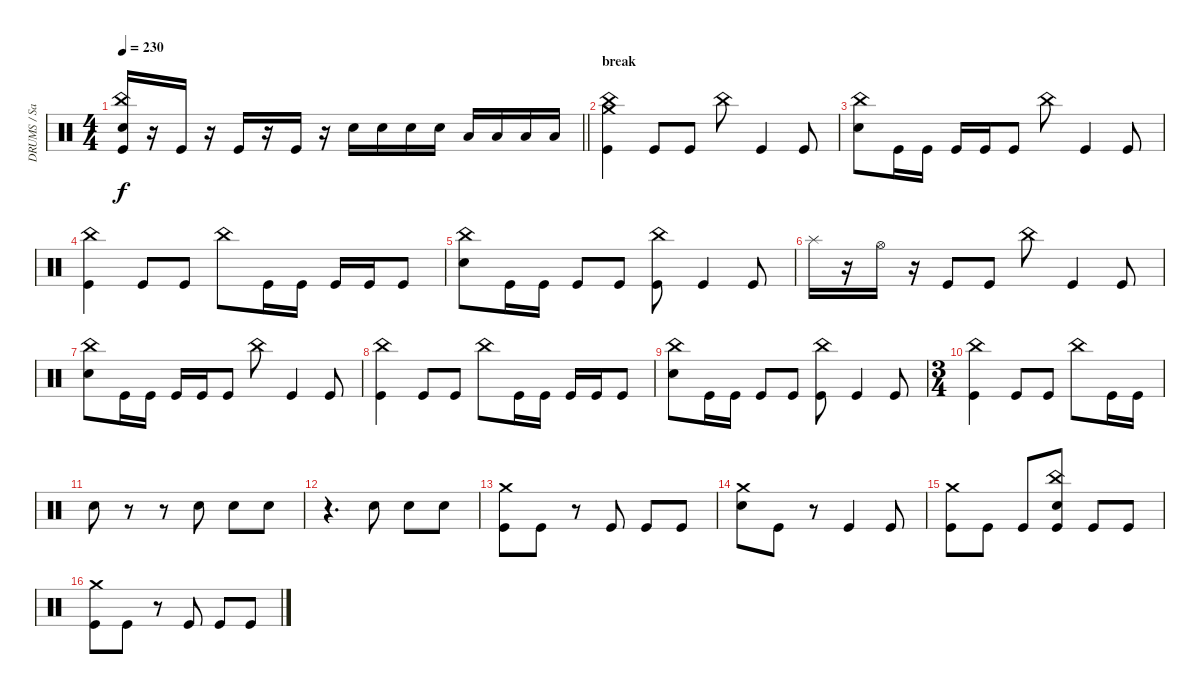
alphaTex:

\track ("DRUMS / Sasha" "DRUMS / Sa") {instrument percussion}
\staff {score}
\articulation defaults
\ts (4 4)
\tempo 230
\clef neutral
\barLineRight lightlight
\ks c
("Kick (hit)" "China (hit)" "Snare (hit) 2").16{dy f} r.16 "Kick (hit)".16 r.16 "Kick (hit)".16 r.16 "Kick (hit)".16 r.16 "Snare (hit) 2".16 "Snare (hit) 2".16 "Snare (hit) 2".16 "Snare (hit) 2".16 "Low Tom (hit)".16 "Low Tom (hit)".16 "Low Tom (hit)".16 "Low Tom (hit)".16 |
\section ("" "break")
("Crash medium (hit)" "China (hit)" "Kick (hit)").4 "Kick (hit)".8 "Kick (hit)".8 "China (hit)".8 "Kick (hit)".4 "Kick (hit)".8 |
("Snare (hit) 2" "China (hit)").8 "Kick (hit)".16 "Kick (hit)".16 "Kick (hit)".16 "Kick (hit)".16 "Kick (hit)".8 "China (hit)".8 "Kick (hit)".4 "Kick (hit)".8 |
("China (hit)" "Kick (hit)").4 "Kick (hit)".8 "Kick (hit)".8 "China (hit)".8 "Kick (hit)".16 "Kick (hit)".16 "Kick (hit)".16 "Kick (hit)".16 "Kick (hit)".8 |
("Snare (hit) 2" "China (hit)").8 "Kick (hit)".16 "Kick (hit)".16 "Kick (hit)".8 "Kick (hit)".8 ("China (hit)" "Kick (hit)").8 "Kick (hit)".4 "Kick (hit)".8 |
"Splash (hit)".16 r.16 "Hi-Hat (open)".16 r.16 "Kick (hit)".8 "Kick (hit)".8 "China (hit)".8 "Kick (hit)".4 "Kick (hit)".8 |
("Snare (hit) 2" "China (hit)").8 "Kick (hit)".16 "Kick (hit)".16 "Kick (hit)".16 "Kick (hit)".16 "Kick (hit)".8 "China (hit)".8 "Kick (hit)".4 "Kick (hit)".8 |
("China (hit)" "Kick (hit)").4 "Kick (hit)".8 "Kick (hit)".8 "China (hit)".8 "Kick (hit)".16 "Kick (hit)".16 "Kick (hit)".16 "Kick (hit)".16 "Kick (hit)".8 |
("Snare (hit) 2" "China (hit)").8 "Kick (hit)".16 "Kick (hit)".16 "Kick (hit)".8 "Kick (hit)".8 ("China (hit)" "Kick (hit)").8 "Kick (hit)".4 "Kick (hit)".8 |
\ts (3 4)
("China (hit)" "Kick (hit)").4 "Kick (hit)".8 "Kick (hit)".8 "China (hit)".8 "Kick (hit)".16 "Kick (hit)".16 |
"Snare (hit) 2".8 r.8 r.8 "Snare (hit) 2".8 "Snare (hit) 2".8 "Snare (hit) 2".8 |
r.4{d} "Snare (hit) 2".8 "Snare (hit) 2".8 "Snare (hit) 2".8 |
("Crash medium (hit)" "Kick (hit)").8 "Kick (hit)".8 r.8 "Kick (hit)".8 "Kick (hit)".8 "Kick (hit)".8 |
("Crash medium (hit)" "Snare (hit) 2").8 "Kick (hit)".8 r.8 "Kick (hit)".4 "Kick (hit)".8 |
("Crash medium (hit)" "Kick (hit)").8 "Kick (hit)".8 "Kick (hit)".8 ("China (hit)" "Kick (hit)" "Snare (hit) 2").8 "Kick (hit)".8 "Kick (hit)".8 |
("Crash medium (hit)" "Kick (hit)").8 "Kick (hit)".8 r.8 "Kick (hit)".8 "Kick (hit)".8 "Kick (hit)".8
